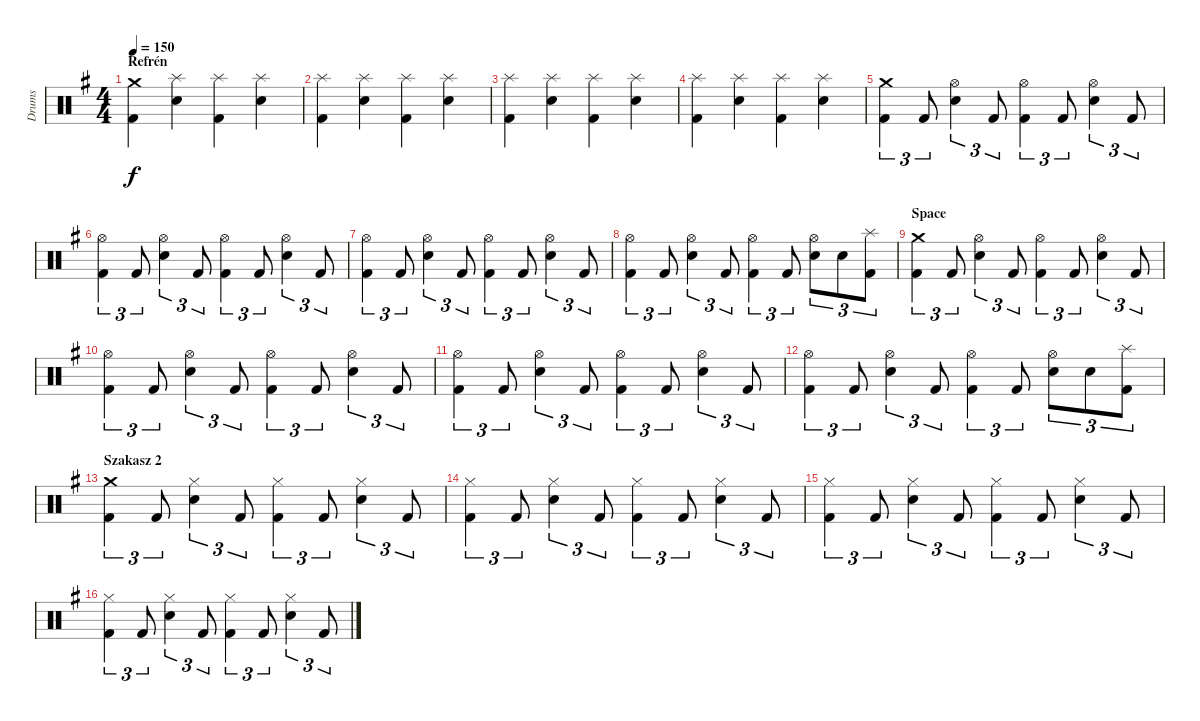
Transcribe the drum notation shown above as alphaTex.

\track ("Drums" "Drums") {instrument percussion}
\staff {score}
\articulation defaults
\ts (4 4)
\section ("" "Refrén")
\tempo 150
\clef neutral
\ks eminor
("Crash medium (hit)" "Kick (hit) 2").4{dy f} ("Splash (hit)" "Snare (hit) 2").4 ("Splash (hit)" "Kick (hit) 2").4 ("Splash (hit)" "Snare (hit) 2").4 |
("Splash (hit)" "Kick (hit) 2").4 ("Splash (hit)" "Snare (hit) 2").4 ("Splash (hit)" "Kick (hit) 2").4 ("Splash (hit)" "Snare (hit) 2").4 |
("Splash (hit)" "Kick (hit) 2").4 ("Splash (hit)" "Snare (hit) 2").4 ("Splash (hit)" "Kick (hit) 2").4 ("Splash (hit)" "Snare (hit) 2").4 |
("Splash (hit)" "Kick (hit) 2").4 ("Splash (hit)" "Snare (hit) 2").4 ("Splash (hit)" "Kick (hit) 2").4 ("Splash (hit)" "Snare (hit) 2").4 |
("Crash medium (hit)" "Kick (hit) 2").4{tu (3 2)} "Kick (hit) 2".8{tu (3 2)} ("Hi-Hat (open)" "Snare (hit) 2").4{tu (3 2)} "Kick (hit) 2".8{tu (3 2)} ("Hi-Hat (open)" "Kick (hit) 2").4{tu (3 2)} "Kick (hit) 2".8{tu (3 2)} ("Hi-Hat (open)" "Snare (hit) 2").4{tu (3 2)} "Kick (hit) 2".8{tu (3 2)} |
("Hi-Hat (open)" "Kick (hit) 2").4{tu (3 2)} "Kick (hit) 2".8{tu (3 2)} ("Hi-Hat (open)" "Snare (hit) 2").4{tu (3 2)} "Kick (hit) 2".8{tu (3 2)} ("Hi-Hat (open)" "Kick (hit) 2").4{tu (3 2)} "Kick (hit) 2".8{tu (3 2)} ("Hi-Hat (open)" "Snare (hit) 2").4{tu (3 2)} "Kick (hit) 2".8{tu (3 2)} |
("Hi-Hat (open)" "Kick (hit) 2").4{tu (3 2)} "Kick (hit) 2".8{tu (3 2)} ("Hi-Hat (open)" "Snare (hit) 2").4{tu (3 2)} "Kick (hit) 2".8{tu (3 2)} ("Hi-Hat (open)" "Kick (hit) 2").4{tu (3 2)} "Kick (hit) 2".8{tu (3 2)} ("Hi-Hat (open)" "Snare (hit) 2").4{tu (3 2)} "Kick (hit) 2".8{tu (3 2)} |
("Hi-Hat (open)" "Kick (hit) 2").4{tu (3 2)} "Kick (hit) 2".8{tu (3 2)} ("Hi-Hat (open)" "Snare (hit) 2").4{tu (3 2)} "Kick (hit) 2".8{tu (3 2)} ("Hi-Hat (open)" "Kick (hit) 2").4{tu (3 2)} "Kick (hit) 2".8{tu (3 2)} ("Hi-Hat (open)" "Snare (hit) 2").8{tu (3 2)} "Snare (hit) 2".8{tu (3 2)} ("Splash (hit)" "Kick (hit) 2").8{tu (3 2)} |
\section ("" "Space")
("Crash medium (hit)" "Kick (hit) 2").4{tu (3 2)} "Kick (hit) 2".8{tu (3 2)} ("Hi-Hat (open)" "Snare (hit) 2").4{tu (3 2)} "Kick (hit) 2".8{tu (3 2)} ("Hi-Hat (open)" "Kick (hit) 2").4{tu (3 2)} "Kick (hit) 2".8{tu (3 2)} ("Hi-Hat (open)" "Snare (hit) 2").4{tu (3 2)} "Kick (hit) 2".8{tu (3 2)} |
("Hi-Hat (open)" "Kick (hit) 2").4{tu (3 2)} "Kick (hit) 2".8{tu (3 2)} ("Hi-Hat (open)" "Snare (hit) 2").4{tu (3 2)} "Kick (hit) 2".8{tu (3 2)} ("Hi-Hat (open)" "Kick (hit) 2").4{tu (3 2)} "Kick (hit) 2".8{tu (3 2)} ("Hi-Hat (open)" "Snare (hit) 2").4{tu (3 2)} "Kick (hit) 2".8{tu (3 2)} |
("Hi-Hat (open)" "Kick (hit) 2").4{tu (3 2)} "Kick (hit) 2".8{tu (3 2)} ("Hi-Hat (open)" "Snare (hit) 2").4{tu (3 2)} "Kick (hit) 2".8{tu (3 2)} ("Hi-Hat (open)" "Kick (hit) 2").4{tu (3 2)} "Kick (hit) 2".8{tu (3 2)} ("Hi-Hat (open)" "Snare (hit) 2").4{tu (3 2)} "Kick (hit) 2".8{tu (3 2)} |
("Hi-Hat (open)" "Kick (hit) 2").4{tu (3 2)} "Kick (hit) 2".8{tu (3 2)} ("Hi-Hat (open)" "Snare (hit) 2").4{tu (3 2)} "Kick (hit) 2".8{tu (3 2)} ("Hi-Hat (open)" "Kick (hit) 2").4{tu (3 2)} "Kick (hit) 2".8{tu (3 2)} ("Hi-Hat (open)" "Snare (hit) 2").8{tu (3 2)} "Snare (hit) 2".8{tu (3 2)} ("Splash (hit)" "Kick (hit) 2").8{tu (3 2)} |
\section ("" "Szakasz 2")
("Crash medium (hit)" "Kick (hit) 2").4{tu (3 2)} "Kick (hit) 2".8{tu (3 2)} ("Hi-Hat (closed)" "Snare (hit) 2").4{tu (3 2)} "Kick (hit) 2".8{tu (3 2)} ("Hi-Hat (closed)" "Kick (hit) 2").4{tu (3 2)} "Kick (hit) 2".8{tu (3 2)} ("Hi-Hat (closed)" "Snare (hit) 2").4{tu (3 2)} "Kick (hit) 2".8{tu (3 2)} |
("Hi-Hat (closed)" "Kick (hit) 2").4{tu (3 2)} "Kick (hit) 2".8{tu (3 2)} ("Hi-Hat (closed)" "Snare (hit) 2").4{tu (3 2)} "Kick (hit) 2".8{tu (3 2)} ("Hi-Hat (closed)" "Kick (hit) 2").4{tu (3 2)} "Kick (hit) 2".8{tu (3 2)} ("Hi-Hat (closed)" "Snare (hit) 2").4{tu (3 2)} "Kick (hit) 2".8{tu (3 2)} |
("Hi-Hat (closed)" "Kick (hit) 2").4{tu (3 2)} "Kick (hit) 2".8{tu (3 2)} ("Hi-Hat (closed)" "Snare (hit) 2").4{tu (3 2)} "Kick (hit) 2".8{tu (3 2)} ("Hi-Hat (closed)" "Kick (hit) 2").4{tu (3 2)} "Kick (hit) 2".8{tu (3 2)} ("Hi-Hat (closed)" "Snare (hit) 2").4{tu (3 2)} "Kick (hit) 2".8{tu (3 2)} |
("Hi-Hat (closed)" "Kick (hit) 2").4{tu (3 2)} "Kick (hit) 2".8{tu (3 2)} ("Hi-Hat (closed)" "Snare (hit) 2").4{tu (3 2)} "Kick (hit) 2".8{tu (3 2)} ("Hi-Hat (closed)" "Kick (hit) 2").4{tu (3 2)} "Kick (hit) 2".8{tu (3 2)} ("Hi-Hat (closed)" "Snare (hit) 2").4{tu (3 2)} "Kick (hit) 2".8{tu (3 2)}
